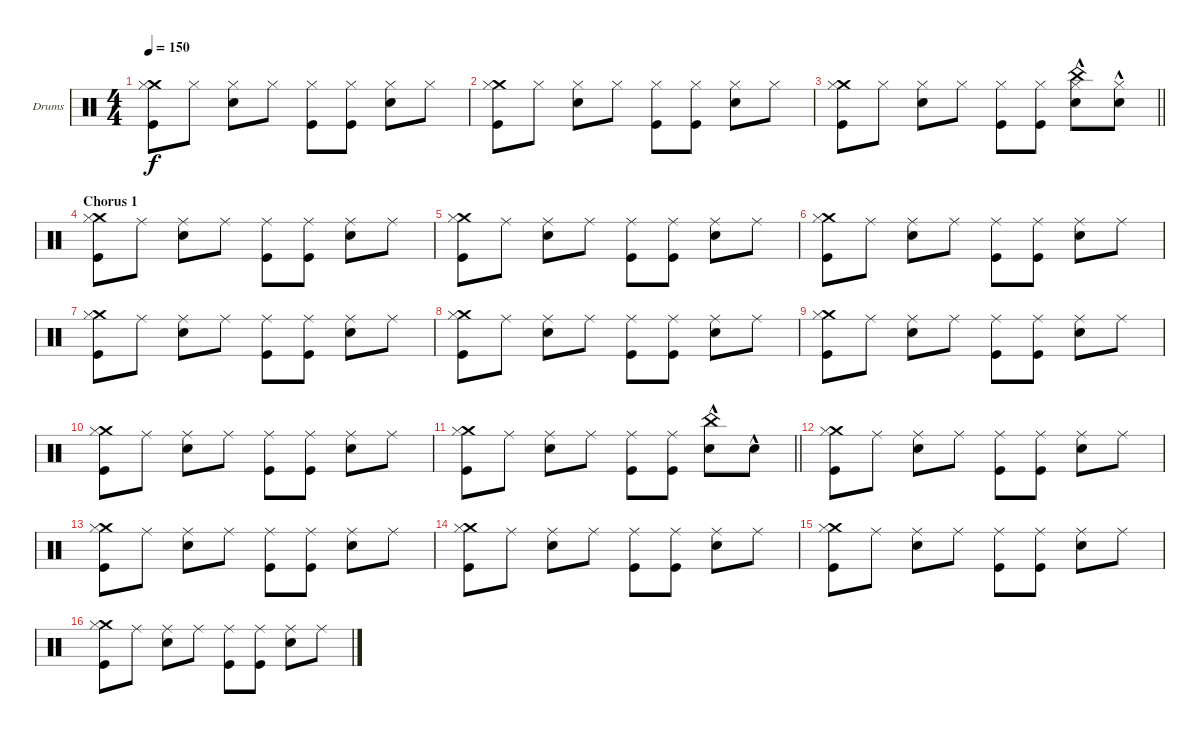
\bracketExtendMode groupsimilarinstruments
\firstSystemTrackNameOrientation horizontal
\otherSystemsTrackNameOrientation horizontal
\track ("Drumkit" "Drums") {instrument percussion}
\staff {score}
\articulation defaults
\ts (4 4)
\tempo 150
\clef neutral
\ks c
("Crash medium (hit)" "Kick (hit)" "Hi-Hat (closed)").8{dy f} "Hi-Hat (closed)".8 ("Snare (hit) 2" "Hi-Hat (closed)").8 "Hi-Hat (closed)".8 ("Kick (hit)" "Hi-Hat (closed)").8 ("Kick (hit)" "Hi-Hat (closed)").8 ("Snare (hit) 2" "Hi-Hat (closed)").8 "Hi-Hat (closed)".8 |
("Crash medium (hit)" "Kick (hit)" "Hi-Hat (closed)").8 "Hi-Hat (closed)".8 ("Snare (hit) 2" "Hi-Hat (closed)").8 "Hi-Hat (closed)".8 ("Kick (hit)" "Hi-Hat (closed)").8 ("Kick (hit)" "Hi-Hat (closed)").8 ("Snare (hit) 2" "Hi-Hat (closed)").8 "Hi-Hat (closed)".8 |
\barLineRight lightlight
("Crash medium (hit)" "Kick (hit)" "Hi-Hat (closed)").8 "Hi-Hat (closed)".8 ("Snare (hit) 2" "Hi-Hat (closed)").8 "Hi-Hat (closed)".8 ("Kick (hit)" "Hi-Hat (closed)").8 ("Kick (hit)" "Hi-Hat (closed)").8 ("China (hit)" "Snare (hit) 2"{hac} "Hi-Hat (closed)").8 ("Snare (hit) 2"{hac} "Hi-Hat (closed)").8 |
\section ("" "Chorus 1")
("Crash medium (hit)" "Kick (hit)" "Hi-Hat (closed)").8 "Ride (middle)".8 ("Ride (middle)" "Snare (hit) 2").8 "Ride (middle)".8 ("Ride (middle)" "Kick (hit)").8 ("Ride (middle)" "Kick (hit)").8 ("Ride (middle)" "Snare (hit) 2").8 "Ride (middle)".8 |
("Crash medium (hit)" "Kick (hit)" "Hi-Hat (closed)").8 "Ride (middle)".8 ("Ride (middle)" "Snare (hit) 2").8 "Ride (middle)".8 ("Ride (middle)" "Kick (hit)").8 ("Ride (middle)" "Kick (hit)").8 ("Ride (middle)" "Snare (hit) 2").8 "Ride (middle)".8 |
("Crash medium (hit)" "Kick (hit)" "Hi-Hat (closed)").8 "Ride (middle)".8 ("Ride (middle)" "Snare (hit) 2").8 "Ride (middle)".8 ("Ride (middle)" "Kick (hit)").8 ("Ride (middle)" "Kick (hit)").8 ("Ride (middle)" "Snare (hit) 2").8 "Ride (middle)".8 |
("Crash medium (hit)" "Kick (hit)" "Hi-Hat (closed)").8 "Ride (middle)".8 ("Ride (middle)" "Snare (hit) 2").8 "Ride (middle)".8 ("Ride (middle)" "Kick (hit)").8 ("Ride (middle)" "Kick (hit)").8 ("Ride (middle)" "Snare (hit) 2").8 "Ride (middle)".8 |
("Crash medium (hit)" "Kick (hit)" "Hi-Hat (closed)").8 "Ride (middle)".8 ("Ride (middle)" "Snare (hit) 2").8 "Ride (middle)".8 ("Ride (middle)" "Kick (hit)").8 ("Ride (middle)" "Kick (hit)").8 ("Ride (middle)" "Snare (hit) 2").8 "Ride (middle)".8 |
("Crash medium (hit)" "Kick (hit)" "Hi-Hat (closed)").8 "Ride (middle)".8 ("Ride (middle)" "Snare (hit) 2").8 "Ride (middle)".8 ("Ride (middle)" "Kick (hit)").8 ("Ride (middle)" "Kick (hit)").8 ("Ride (middle)" "Snare (hit) 2").8 "Ride (middle)".8 |
("Crash medium (hit)" "Kick (hit)" "Hi-Hat (closed)").8 "Ride (middle)".8 ("Ride (middle)" "Snare (hit) 2").8 "Ride (middle)".8 ("Ride (middle)" "Kick (hit)").8 ("Ride (middle)" "Kick (hit)").8 ("Ride (middle)" "Snare (hit) 2").8 "Ride (middle)".8 |
\barLineRight lightlight
("Crash medium (hit)" "Kick (hit)" "Hi-Hat (closed)").8 "Ride (middle)".8 ("Ride (middle)" "Snare (hit) 2").8 "Ride (middle)".8 ("Ride (middle)" "Kick (hit)").8 ("Ride (middle)" "Kick (hit)").8 ("Snare (hit) 2"{hac} "China (hit)").8 "Snare (hit) 2"{hac}.8 |
("Crash medium (hit)" "Kick (hit)" "Hi-Hat (closed)").8 "Ride (middle)".8 ("Ride (middle)" "Snare (hit) 2").8 "Ride (middle)".8 ("Ride (middle)" "Kick (hit)").8 ("Ride (middle)" "Kick (hit)").8 ("Ride (middle)" "Snare (hit) 2").8 "Ride (middle)".8 |
("Crash medium (hit)" "Kick (hit)" "Hi-Hat (closed)").8 "Ride (middle)".8 ("Ride (middle)" "Snare (hit) 2").8 "Ride (middle)".8 ("Ride (middle)" "Kick (hit)").8 ("Ride (middle)" "Kick (hit)").8 ("Ride (middle)" "Snare (hit) 2").8 "Ride (middle)".8 |
("Crash medium (hit)" "Kick (hit)" "Hi-Hat (closed)").8 "Ride (middle)".8 ("Ride (middle)" "Snare (hit) 2").8 "Ride (middle)".8 ("Ride (middle)" "Kick (hit)").8 ("Ride (middle)" "Kick (hit)").8 ("Ride (middle)" "Snare (hit) 2").8 "Ride (middle)".8 |
("Crash medium (hit)" "Kick (hit)" "Hi-Hat (closed)").8 "Ride (middle)".8 ("Ride (middle)" "Snare (hit) 2").8 "Ride (middle)".8 ("Ride (middle)" "Kick (hit)").8 ("Ride (middle)" "Kick (hit)").8 ("Ride (middle)" "Snare (hit) 2").8 "Ride (middle)".8 |
("Crash medium (hit)" "Kick (hit)" "Hi-Hat (closed)").8 "Ride (middle)".8 ("Ride (middle)" "Snare (hit) 2").8 "Ride (middle)".8 ("Ride (middle)" "Kick (hit)").8 ("Ride (middle)" "Kick (hit)").8 ("Ride (middle)" "Snare (hit) 2").8 "Ride (middle)".8
